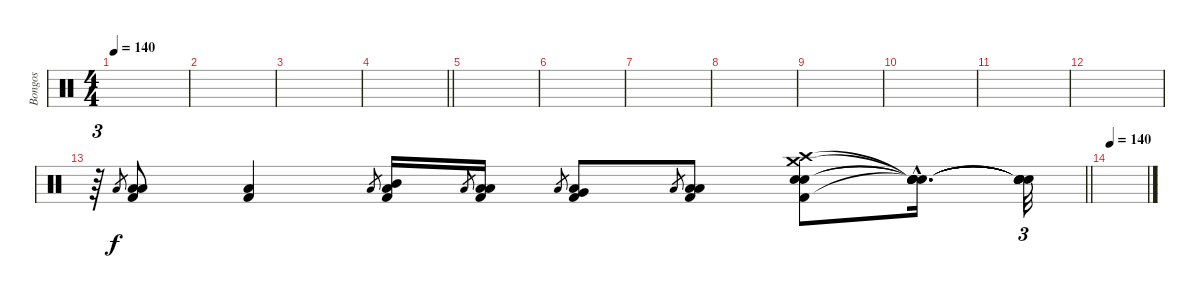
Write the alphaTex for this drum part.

\track ("Bongos" "Bongos") {instrument percussion}
\staff {score}
\articulation defaults
\ts (4 4)
\tempo 140
\clef neutral
\ks c
|
|
|
\barLineRight lightlight
|
|
|
|
|
|
|
|
|
\barLineRight lightlight
r.64{tu (3 2)} "Low Tom (hit)".8{gr} ("Low Tom (hit)" "Low Tom (hit)" "Kick (hit) 2").8 ("Low Floor Tom (hit)" "Kick (hit) 2").4 "Low Tom (hit)".8{gr} ("Mid Tom (hit)" "Low Tom (hit)" "Kick (hit) 2").16 "Low Tom (hit)".8{gr} ("Low Tom (hit)" "Low Tom (hit)" "Kick (hit) 2").16 "Low Tom (hit)".8{gr} ("Very Low Tom (hit)" "Low Tom (hit)" "Kick (hit) 2").8 "Low Tom (hit)".8{gr} ("Low Floor Tom (hit)" "Low Tom (hit)" "Kick (hit) 2").8 ("Crash high (hit)" "Electric Snare (hit)" "Electric Snare (hit)" "Crash medium (hit)" "Kick (hit) 2").8 ("Snare (hit)"{hac t} "Snare (hit)"{hac t} "Snare (hit)"{hac t} "Snare (hit)"{hac t} "Snare (hit)"{hac t}).16{d} ("Snare (hit)"{t} "Snare (hit)"{t} "Snare (hit)"{t} "Snare (hit)"{t} "Snare (hit)"{t}).32{tu (3 2)} |
\tempo 140
